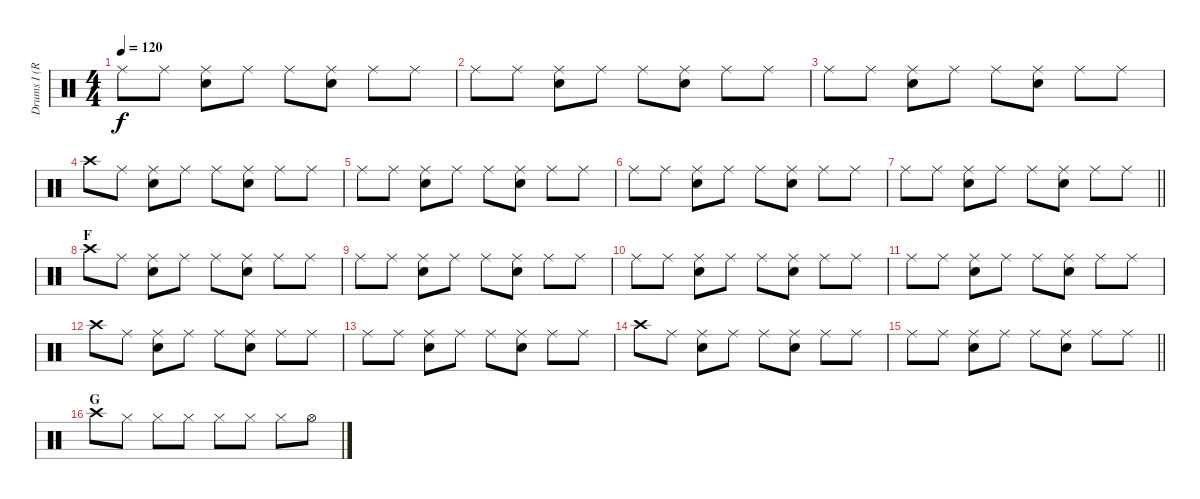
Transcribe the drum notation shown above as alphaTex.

\track ("Drums I (Ruka)" "Drums I (R") {instrument percussion}
\staff {score}
\articulation defaults
\ts (4 4)
\tempo 120
\clef neutral
\ks c "Ride (middle)".8{dy f} "Ride (middle)".8
("Ride (middle)" "Snare (hit) 2").8 "Ride (middle)".8 "Ride (middle)".8 ("Ride (middle)" "Snare (hit) 2").8 "Ride (middle)".8 "Ride (middle)".8 |
"Ride (middle)".8 "Ride (middle)".8 ("Ride (middle)" "Snare (hit) 2").8 "Ride (middle)".8 "Ride (middle)".8 ("Ride (middle)" "Snare (hit) 2").8 "Ride (middle)".8 "Ride (middle)".8 |
"Ride (middle)".8 "Ride (middle)".8 ("Ride (middle)" "Snare (hit) 2").8 "Ride (middle)".8 "Ride (middle)".8 ("Ride (middle)" "Snare (hit) 2").8 "Ride (middle)".8 "Ride (middle)".8 |
"Crash high (hit)".8 "Ride (middle)".8 ("Ride (middle)" "Snare (hit) 2").8 "Ride (middle)".8 "Ride (middle)".8 ("Ride (middle)" "Snare (hit) 2").8 "Ride (middle)".8 "Ride (middle)".8 |
"Ride (middle)".8 "Ride (middle)".8 ("Ride (middle)" "Snare (hit) 2").8 "Ride (middle)".8 "Ride (middle)".8 ("Ride (middle)" "Snare (hit) 2").8 "Ride (middle)".8 "Ride (middle)".8 |
"Ride (middle)".8 "Ride (middle)".8 ("Ride (middle)" "Snare (hit) 2").8 "Ride (middle)".8 "Ride (middle)".8 ("Ride (middle)" "Snare (hit) 2").8 "Ride (middle)".8 "Ride (middle)".8 |
\barLineRight lightlight "Ride (middle)".8 "Ride (middle)".8
("Ride (middle)" "Snare (hit) 2").8 "Ride (middle)".8 "Ride (middle)".8 ("Ride (middle)" "Snare (hit) 2").8 "Ride (middle)".8 "Ride (middle)".8 |
\section ("" "F")
"Crash high (hit)".8 "Ride (middle)".8 ("Ride (middle)" "Snare (hit) 2").8 "Ride (middle)".8 "Ride (middle)".8 ("Ride (middle)" "Snare (hit) 2").8 "Ride (middle)".8 "Ride (middle)".8 |
"Ride (middle)".8 "Ride (middle)".8 ("Ride (middle)" "Snare (hit) 2").8 "Ride (middle)".8 "Ride (middle)".8 ("Ride (middle)" "Snare (hit) 2").8 "Ride (middle)".8 "Ride (middle)".8 |
"Ride (middle)".8 "Ride (middle)".8 ("Ride (middle)" "Snare (hit) 2").8 "Ride (middle)".8 "Ride (middle)".8 ("Ride (middle)" "Snare (hit) 2").8 "Ride (middle)".8 "Ride (middle)".8 |
"Ride (middle)".8 "Ride (middle)".8 ("Ride (middle)" "Snare (hit) 2").8 "Ride (middle)".8 "Ride (middle)".8 ("Ride (middle)" "Snare (hit) 2").8 "Ride (middle)".8 "Ride (middle)".8 |
"Crash high (hit)".8 "Ride (middle)".8 ("Ride (middle)" "Snare (hit) 2").8 "Ride (middle)".8 "Ride (middle)".8 ("Ride (middle)" "Snare (hit) 2").8 "Ride (middle)".8 "Ride (middle)".8 |
"Ride (middle)".8 "Ride (middle)".8 ("Ride (middle)" "Snare (hit) 2").8 "Ride (middle)".8 "Ride (middle)".8 ("Ride (middle)" "Snare (hit) 2").8 "Ride (middle)".8 "Ride (middle)".8 |
"Crash high (hit)".8 "Ride (middle)".8 ("Ride (middle)" "Snare (hit) 2").8 "Ride (middle)".8 "Ride (middle)".8 ("Ride (middle)" "Snare (hit) 2").8 "Ride (middle)".8 "Ride (middle)".8 |
\barLineRight lightlight "Ride (middle)".8 "Ride (middle)".8
("Ride (middle)" "Snare (hit) 2").8 "Ride (middle)".8 "Ride (middle)".8 ("Ride (middle)" "Snare (hit) 2").8 "Ride (middle)".8 "Ride (middle)".8 |
\section ("" "G")
"Crash high (hit)".8 "Hi-Hat (closed)".8 "Hi-Hat (closed)".8 "Hi-Hat (closed)".8 "Hi-Hat (closed)".8 "Hi-Hat (closed)".8 "Hi-Hat (closed)".8 "Hi-Hat (open)".8
